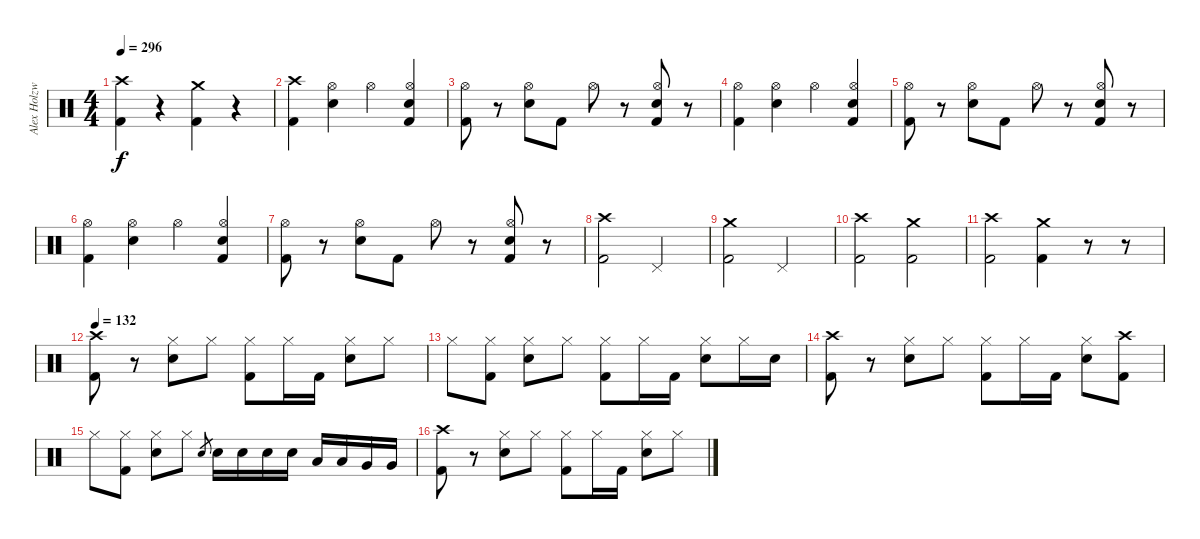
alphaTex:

\track ("Alex Holzwarth" "Alex Holzw") {instrument percussion}
\staff {score}
\articulation defaults
\ts (4 4)
\tempo 296
\clef neutral
\ks c
("Crash high (hit)" "Kick (hit) 2").4{dy f} r.4 ("Crash medium (hit)" "Kick (hit) 2").4 r.4 |
("Crash high (hit)" "Kick (hit) 2").4 ("Hi-Hat (open)" "Snare (hit) 2").4 "Hi-Hat (open)".4 ("Hi-Hat (open)" "Snare (hit) 2" "Kick (hit) 2").4 |
("Hi-Hat (open)" "Kick (hit) 2").8 r.8 ("Hi-Hat (open)" "Snare (hit) 2").8 "Kick (hit) 2".8 "Hi-Hat (open)".8 r.8 ("Hi-Hat (open)" "Snare (hit) 2" "Kick (hit) 2").8 r.8 |
("Hi-Hat (open)" "Kick (hit) 2").4 ("Hi-Hat (open)" "Snare (hit) 2").4 "Hi-Hat (open)".4 ("Hi-Hat (open)" "Snare (hit) 2" "Kick (hit) 2").4 |
("Hi-Hat (open)" "Kick (hit) 2").8 r.8 ("Hi-Hat (open)" "Snare (hit) 2").8 "Kick (hit) 2".8 "Hi-Hat (open)".8 r.8 ("Hi-Hat (open)" "Snare (hit) 2" "Kick (hit) 2").8 r.8 |
("Hi-Hat (open)" "Kick (hit) 2").4 ("Hi-Hat (open)" "Snare (hit) 2").4 "Hi-Hat (open)".4 ("Hi-Hat (open)" "Snare (hit) 2" "Kick (hit) 2").4 |
("Hi-Hat (open)" "Kick (hit) 2").8 r.8 ("Hi-Hat (open)" "Snare (hit) 2").8 "Kick (hit) 2".8 "Hi-Hat (open)".8 r.8 ("Hi-Hat (open)" "Snare (hit) 2" "Kick (hit) 2").8 r.8 |
("Crash high (hit)" "Kick (hit) 2").2 "Pedal Hi-Hat (hit)".2 |
("Crash medium (hit)" "Kick (hit) 2").2 "Pedal Hi-Hat (hit)".2 |
("Crash high (hit)" "Kick (hit) 2").2 ("Crash medium (hit)" "Kick (hit) 2").2 |
("Crash high (hit)" "Kick (hit) 2").2 ("Crash medium (hit)" "Kick (hit) 2").4 r.8 r.8 |
\tempo 132
("Crash high (hit)" "Kick (hit) 2").8 r.8 ("Hi-Hat (closed)" "Snare (hit) 2").8 "Hi-Hat (closed)".8 ("Hi-Hat (closed)" "Kick (hit) 2").8 "Hi-Hat (closed)".16 "Kick (hit) 2".16 ("Hi-Hat (closed)" "Snare (hit) 2").8 "Hi-Hat (closed)".8 |
"Hi-Hat (closed)".8 ("Hi-Hat (closed)" "Kick (hit) 2").8 ("Hi-Hat (closed)" "Snare (hit) 2").8 "Hi-Hat (closed)".8 ("Hi-Hat (closed)" "Kick (hit) 2").8 "Hi-Hat (closed)".16 "Kick (hit) 2".16 ("Hi-Hat (closed)" "Snare (hit) 2").8 "Hi-Hat (closed)".16 "Snare (hit) 2".16 |
("Crash high (hit)" "Kick (hit) 2").8 r.8 ("Hi-Hat (closed)" "Snare (hit) 2").8 "Hi-Hat (closed)".8 ("Hi-Hat (closed)" "Kick (hit) 2").8 "Hi-Hat (closed)".16 "Kick (hit) 2".16 ("Hi-Hat (closed)" "Snare (hit) 2").8 ("Crash high (hit)" "Kick (hit) 2").8 |
"Hi-Hat (closed)".8 ("Hi-Hat (closed)" "Kick (hit) 2").8 ("Hi-Hat (closed)" "Snare (hit) 2").8 "Hi-Hat (closed)".8 "Snare (hit) 2".8{gr} "Snare (hit) 2".16 "Snare (hit) 2".16 "Snare (hit) 2".16 "Snare (hit) 2".16 "Low Tom (hit)".16 "Low Tom (hit)".16 "Very Low Tom (hit)".16 "Very Low Tom (hit)".16 |
("Crash high (hit)" "Kick (hit) 2").8 r.8 ("Hi-Hat (closed)" "Snare (hit) 2").8 "Hi-Hat (closed)".8 ("Hi-Hat (closed)" "Kick (hit) 2").8 "Hi-Hat (closed)".16 "Kick (hit) 2".16 ("Hi-Hat (closed)" "Snare (hit) 2").8 "Hi-Hat (closed)".8
